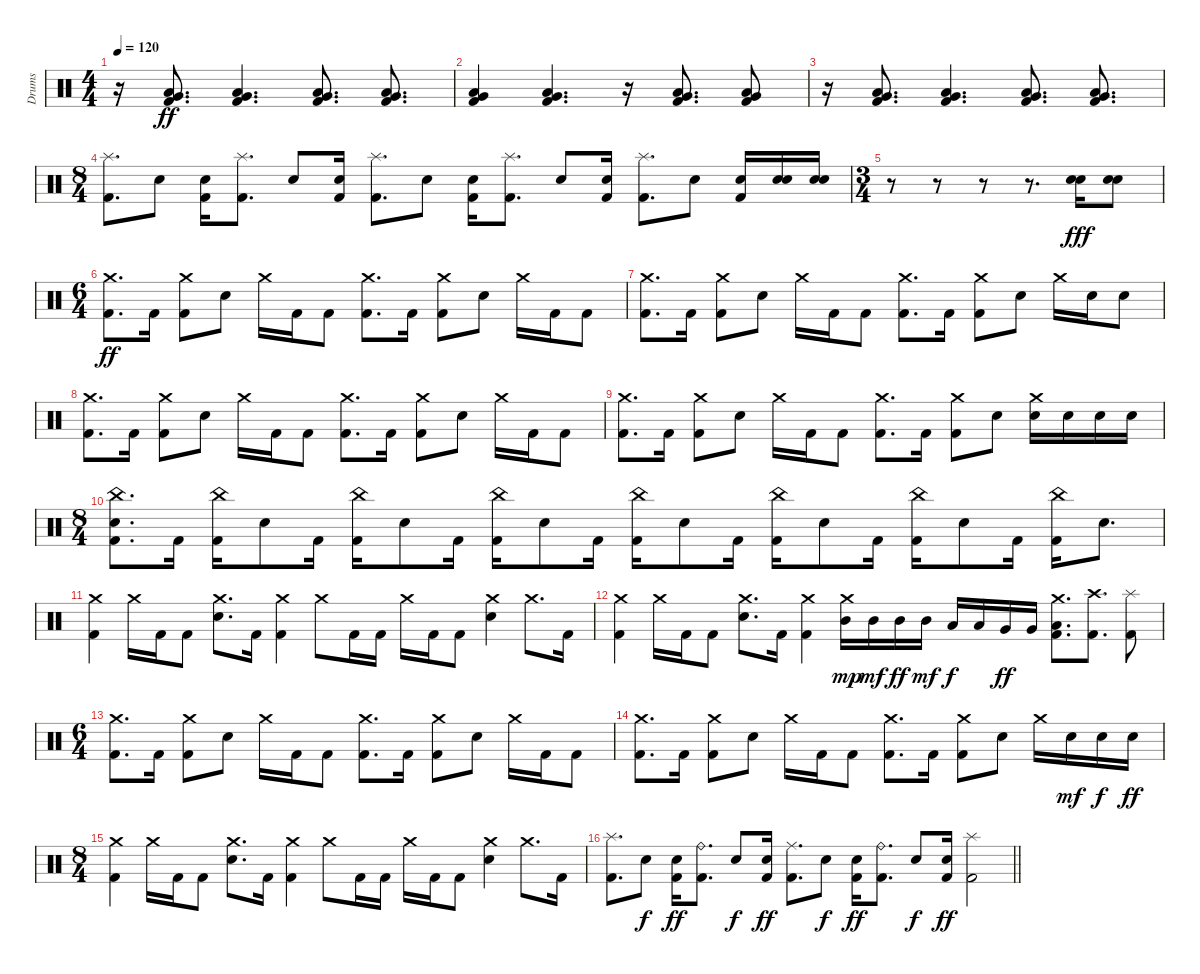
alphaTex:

\track ("Drums" "Drums") {instrument percussion}
\staff {score}
\articulation defaults
\ts (4 4)
\tempo 120
\clef neutral
\ks c
r.16{dy ff} ("Very Low Tom (hit)" "Low Floor Tom (hit)" "Kick (hit) 2").8{d} ("Very Low Tom (hit)" "Low Floor Tom (hit)" "Kick (hit) 2").4{d} ("Very Low Tom (hit)" "Low Floor Tom (hit)" "Kick (hit) 2").8{d} ("Very Low Tom (hit)" "Low Floor Tom (hit)" "Kick (hit) 2").8{d} |
("Very Low Tom (hit)" "Low Floor Tom (hit)" "Kick (hit) 2").4 ("Very Low Tom (hit)" "Low Floor Tom (hit)" "Kick (hit) 2").4{d} r.16 ("Very Low Tom (hit)" "Low Floor Tom (hit)" "Kick (hit) 2").8{d} ("Very Low Tom (hit)" "Low Floor Tom (hit)" "Kick (hit) 2").8 |
r.16 ("Very Low Tom (hit)" "Low Floor Tom (hit)" "Kick (hit) 2").8{d} ("Very Low Tom (hit)" "Low Floor Tom (hit)" "Kick (hit) 2").4{d} ("Very Low Tom (hit)" "Low Floor Tom (hit)" "Kick (hit) 2").8{d} ("Very Low Tom (hit)" "Low Floor Tom (hit)" "Kick (hit) 2").8{d} |
\ts (8 4)
("Splash (hit)" "Kick (hit) 2").8{d} "Electric Snare (hit)".8 ("Electric Snare (hit)" "Kick (hit) 2").16 ("Splash (hit)" "Kick (hit) 2").8{d} "Electric Snare (hit)".8 ("Electric Snare (hit)" "Kick (hit) 2").16 ("Splash (hit)" "Kick (hit) 2").8{d} "Electric Snare (hit)".8 ("Electric Snare (hit)" "Kick (hit) 2").16 ("Splash (hit)" "Kick (hit) 2").8{d} "Electric Snare (hit)".8 ("Electric Snare (hit)" "Kick (hit) 2").16 ("Splash (hit)" "Kick (hit) 2").8{d} "Electric Snare (hit)".8 ("Electric Snare (hit)" "Kick (hit) 2").16 ("Electric Snare (hit)" "Electric Snare (hit)").16 ("Electric Snare (hit)" "Electric Snare (hit)").16 |
\ts (3 4)
r.8 r.8 r.8 r.8{d} ("Electric Snare (hit)" "Electric Snare (hit)").16{dy fff} ("Electric Snare (hit)" "Electric Snare (hit)").8 |
\ts (6 4)
("Crash medium (hit)" "Kick (hit) 2").8{d dy ff} "Kick (hit) 2".16 ("Crash medium (hit)" "Kick (hit) 2").8 "Electric Snare (hit)".8 "Crash medium (hit)".16 "Kick (hit) 2".16 "Kick (hit) 2".8 ("Crash medium (hit)" "Kick (hit) 2").8{d} "Kick (hit) 2".16 ("Crash medium (hit)" "Kick (hit) 2").8 "Electric Snare (hit)".8 "Crash medium (hit)".16 "Kick (hit) 2".16 "Kick (hit) 2".8 |
("Crash medium (hit)" "Kick (hit) 2").8{d} "Kick (hit) 2".16 ("Crash medium (hit)" "Kick (hit) 2").8 "Electric Snare (hit)".8 "Crash medium (hit)".16 "Kick (hit) 2".16 "Kick (hit) 2".8 ("Crash medium (hit)" "Kick (hit) 2").8{d} "Kick (hit) 2".16 ("Crash medium (hit)" "Kick (hit) 2").8 "Electric Snare (hit)".8 "Crash medium (hit)".16 "Electric Snare (hit)".16 "Electric Snare (hit)".8 |
("Crash medium (hit)" "Kick (hit) 2").8{d} "Kick (hit) 2".16 ("Crash medium (hit)" "Kick (hit) 2").8 "Electric Snare (hit)".8 "Crash medium (hit)".16 "Kick (hit) 2".16 "Kick (hit) 2".8 ("Crash medium (hit)" "Kick (hit) 2").8{d} "Kick (hit) 2".16 ("Crash medium (hit)" "Kick (hit) 2").8 "Electric Snare (hit)".8 "Crash medium (hit)".16 "Kick (hit) 2".16 "Kick (hit) 2".8 |
("Crash medium (hit)" "Kick (hit) 2").8{d} "Kick (hit) 2".16 ("Crash medium (hit)" "Kick (hit) 2").8 "Electric Snare (hit)".8 "Crash medium (hit)".16 "Kick (hit) 2".16 "Kick (hit) 2".8 ("Crash medium (hit)" "Kick (hit) 2").8{d} "Kick (hit) 2".16 ("Crash medium (hit)" "Kick (hit) 2").8 "Electric Snare (hit)".8 ("Crash medium (hit)" "Electric Snare (hit)").16 "Electric Snare (hit)".16 "Electric Snare (hit)".16 "Electric Snare (hit)".16 |
\ts (8 4)
("China (hit)" "Electric Snare (hit)" "Kick (hit) 2").8{d} "Kick (hit) 2".16 ("China (hit)" "Kick (hit) 2").16 "Electric Snare (hit)".8 "Kick (hit) 2".16 ("China (hit)" "Kick (hit) 2").16 "Electric Snare (hit)".8 "Kick (hit) 2".16 ("China (hit)" "Kick (hit) 2").16 "Electric Snare (hit)".8 "Kick (hit) 2".16 ("China (hit)" "Kick (hit) 2").16 "Electric Snare (hit)".8 "Kick (hit) 2".16 ("China (hit)" "Kick (hit) 2").16 "Electric Snare (hit)".8 "Kick (hit) 2".16 ("China (hit)" "Kick (hit) 2").16 "Electric Snare (hit)".8 "Kick (hit) 2".16 ("China (hit)" "Kick (hit) 2").16 "Electric Snare (hit)".8{d} |
("Crash medium (hit)" "Kick (hit) 2").4 "Crash medium (hit)".16 "Kick (hit) 2".16 "Kick (hit) 2".8 ("Crash medium (hit)" "Electric Snare (hit)").8{d} "Kick (hit) 2".16 ("Crash medium (hit)" "Kick (hit) 2").4 "Crash medium (hit)".8 "Kick (hit) 2".16 "Kick (hit) 2".16 "Crash medium (hit)".16 "Kick (hit) 2".16 "Kick (hit) 2".8 ("Crash medium (hit)" "Electric Snare (hit)").4 "Crash medium (hit)".8{d} "Kick (hit) 2".16 |
("Crash medium (hit)" "Kick (hit) 2").4 "Crash medium (hit)".16 "Kick (hit) 2".16 "Kick (hit) 2".8 ("Crash medium (hit)" "Electric Snare (hit)").8{d} "Kick (hit) 2".16 ("Crash medium (hit)" "Kick (hit) 2").4 ("Crash medium (hit)" "Mid Tom (hit)").16{dy mp} "Mid Tom (hit)".16{dy mf} "Mid Tom (hit)".16{dy ff} "Mid Tom (hit)".16{dy mf} "Low Tom (hit)".16{dy f} "Low Tom (hit)".16 "Very Low Tom (hit)".16{dy ff} "Very Low Tom (hit)".16 ("Crash medium (hit)" "Low Floor Tom (hit)" "Kick (hit) 2").8{d} ("Crash high (hit)" "Kick (hit) 2").8{d} ("Splash (hit)" "Kick (hit) 2").8 |
\ts (6 4)
("Crash medium (hit)" "Kick (hit) 2").8{d} "Kick (hit) 2".16 ("Crash medium (hit)" "Kick (hit) 2").8 "Electric Snare (hit)".8 "Crash medium (hit)".16 "Kick (hit) 2".16 "Kick (hit) 2".8 ("Crash medium (hit)" "Kick (hit) 2").8{d} "Kick (hit) 2".16 ("Crash medium (hit)" "Kick (hit) 2").8 "Electric Snare (hit)".8 "Crash medium (hit)".16 "Kick (hit) 2".16 "Kick (hit) 2".8 |
("Crash medium (hit)" "Kick (hit) 2").8{d} "Kick (hit) 2".16 ("Crash medium (hit)" "Kick (hit) 2").8 "Electric Snare (hit)".8 "Crash medium (hit)".16 "Kick (hit) 2".16 "Kick (hit) 2".8 ("Crash medium (hit)" "Kick (hit) 2").8{d} "Kick (hit) 2".16 ("Crash medium (hit)" "Kick (hit) 2").8 "Electric Snare (hit)".8 "Crash medium (hit)".16 "Electric Snare (hit)".16{dy mf} "Electric Snare (hit)".16{dy f} "Electric Snare (hit)".16{dy ff} |
\ts (8 4)
("Crash medium (hit)" "Kick (hit) 2").4 "Crash medium (hit)".16 "Kick (hit) 2".16 "Kick (hit) 2".8 ("Crash medium (hit)" "Electric Snare (hit)").8{d} "Kick (hit) 2".16 ("Crash medium (hit)" "Kick (hit) 2").4 "Crash medium (hit)".8 "Kick (hit) 2".16 "Kick (hit) 2".16 "Crash medium (hit)".16 "Kick (hit) 2".16 "Kick (hit) 2".8 ("Crash medium (hit)" "Electric Snare (hit)").4 "Crash medium (hit)".8{d} "Kick (hit) 2".16 |
\barLineRight lightlight
("Splash (hit)" "Kick (hit) 2").8{d} "Electric Snare (hit)".8{dy f} ("Electric Snare (hit)" "Kick (hit) 2").16{dy ff} ("Ride (bell)" "Kick (hit) 2").8{d} "Electric Snare (hit)".8{dy f} ("Electric Snare (hit)" "Kick (hit) 2").16{dy ff} ("Ride (middle)" "Kick (hit) 2").8{d} "Electric Snare (hit)".8{dy f} ("Electric Snare (hit)" "Kick (hit) 2").16{dy ff} ("Ride (bell)" "Kick (hit) 2").8{d} "Electric Snare (hit)".8{dy f} ("Electric Snare (hit)" "Kick (hit) 2").16{dy ff} ("Splash (hit)" "Kick (hit) 2").2
